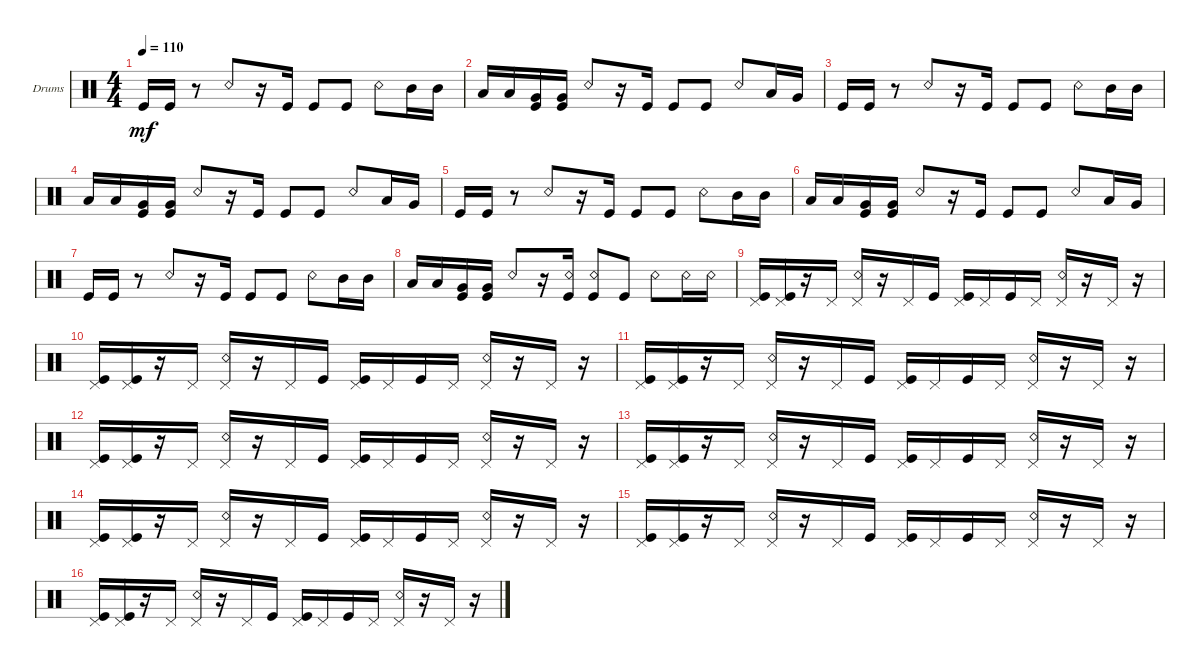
\defaultSystemsLayout 4
\bracketExtendMode groupsimilarinstruments
\firstSystemTrackNameOrientation horizontal
\otherSystemsTrackNameOrientation horizontal
\track ("Drumkit" "Drums") {instrument percussion}
\staff {score}
\articulation defaults
\ts (4 4)
\tempo 110
\clef neutral
\scale
0.474178
\ks c "Kick (hit)".16{dy mf} "Kick (hit)".16
r.8 "Snare (rim shot)".8 r.16 "Kick (hit)".16 "Kick (hit)".8 "Kick (hit)".8 "Snare (rim shot)".8 "Mid Tom (hit)".16 "Mid Tom (hit)".16 |
\scale
0.262911 "Low Tom (hit)".16 "Low Tom (hit)".16 ("Kick (hit)" "Very Low Tom (hit)").16 ("Kick (hit)" "Very Low Tom (hit)").16 "Snare (rim shot)".8 r.16 "Kick (hit)".16 "Kick (hit)".8 "Kick (hit)".8 "Snare (rim shot)".8 "Low Tom (hit)".16 "Very Low Tom (hit)".16 |
\scale
0.262911 "Kick (hit)".16 "Kick (hit)".16 r.8 "Snare (rim shot)".8 r.16 "Kick (hit)".16 "Kick (hit)".8 "Kick (hit)".8 "Snare (rim shot)".8 "Mid Tom (hit)".16 "Mid Tom (hit)".16 |
\scale
0.333333 "Low Tom (hit)".16 "Low Tom (hit)".16 ("Kick (hit)" "Very Low Tom (hit)").16 ("Kick (hit)" "Very Low Tom (hit)").16 "Snare (rim shot)".8 r.16 "Kick (hit)".16 "Kick (hit)".8 "Kick (hit)".8 "Snare (rim shot)".8 "Low Tom (hit)".16 "Very Low Tom (hit)".16 |
\scale
0.333333 "Kick (hit)".16 "Kick (hit)".16 r.8 "Snare (rim shot)".8 r.16 "Kick (hit)".16 "Kick (hit)".8 "Kick (hit)".8 "Snare (rim shot)".8 "Mid Tom (hit)".16 "Mid Tom (hit)".16 |
\scale
0.333333 "Low Tom (hit)".16 "Low Tom (hit)".16 ("Kick (hit)" "Very Low Tom (hit)").16 ("Kick (hit)" "Very Low Tom (hit)").16 "Snare (rim shot)".8 r.16 "Kick (hit)".16 "Kick (hit)".8 "Kick (hit)".8 "Snare (rim shot)".8 "Low Tom (hit)".16 "Very Low Tom (hit)".16 |
"Kick (hit)".16 "Kick (hit)".16 r.8 "Snare (rim shot)".8 r.16 "Kick (hit)".16 "Kick (hit)".8 "Kick (hit)".8 "Snare (rim shot)".8 "Mid Tom (hit)".16 "Mid Tom (hit)".16 |
"Low Tom (hit)".16 "Low Tom (hit)".16 ("Kick (hit)" "Very Low Tom (hit)").16 ("Kick (hit)" "Very Low Tom (hit)").16 "Snare (rim shot)".8 r.16 ("Kick (hit)" "Snare (rim shot)").16 ("Kick (hit)" "Snare (rim shot)").8 "Kick (hit)".8 "Snare (rim shot)".8 "Snare (rim shot)".16 "Snare (rim shot)".16 |
("Pedal Hi-Hat (hit)" "Kick (hit)").16 ("Pedal Hi-Hat (hit)" "Kick (hit)").16 r.16 "Pedal Hi-Hat (hit)".16 ("Pedal Hi-Hat (hit)" "Snare (rim shot)").16 r.16 "Pedal Hi-Hat (hit)".16 "Kick (hit)".16 ("Pedal Hi-Hat (hit)" "Kick (hit)").16 "Pedal Hi-Hat (hit)".16 "Kick (hit)".16 "Pedal Hi-Hat (hit)".16 ("Pedal Hi-Hat (hit)" "Snare (rim shot)").16 r.16 "Pedal Hi-Hat (hit)".16 r.16 |
("Pedal Hi-Hat (hit)" "Kick (hit)").16 ("Pedal Hi-Hat (hit)" "Kick (hit)").16 r.16 "Pedal Hi-Hat (hit)".16 ("Pedal Hi-Hat (hit)" "Snare (rim shot)").16 r.16 "Pedal Hi-Hat (hit)".16 "Kick (hit)".16 ("Pedal Hi-Hat (hit)" "Kick (hit)").16 "Pedal Hi-Hat (hit)".16 "Kick (hit)".16 "Pedal Hi-Hat (hit)".16 ("Pedal Hi-Hat (hit)" "Snare (rim shot)").16 r.16 "Pedal Hi-Hat (hit)".16 r.16 |
("Pedal Hi-Hat (hit)" "Kick (hit)").16 ("Pedal Hi-Hat (hit)" "Kick (hit)").16 r.16 "Pedal Hi-Hat (hit)".16 ("Pedal Hi-Hat (hit)" "Snare (rim shot)").16 r.16 "Pedal Hi-Hat (hit)".16 "Kick (hit)".16 ("Pedal Hi-Hat (hit)" "Kick (hit)").16 "Pedal Hi-Hat (hit)".16 "Kick (hit)".16 "Pedal Hi-Hat (hit)".16 ("Pedal Hi-Hat (hit)" "Snare (rim shot)").16 r.16 "Pedal Hi-Hat (hit)".16 r.16 |
("Pedal Hi-Hat (hit)" "Kick (hit)").16 ("Pedal Hi-Hat (hit)" "Kick (hit)").16 r.16 "Pedal Hi-Hat (hit)".16 ("Pedal Hi-Hat (hit)" "Snare (rim shot)").16 r.16 "Pedal Hi-Hat (hit)".16 "Kick (hit)".16 ("Pedal Hi-Hat (hit)" "Kick (hit)").16 "Pedal Hi-Hat (hit)".16 "Kick (hit)".16 "Pedal Hi-Hat (hit)".16 ("Pedal Hi-Hat (hit)" "Snare (rim shot)").16 r.16 "Pedal Hi-Hat (hit)".16 r.16 |
("Pedal Hi-Hat (hit)" "Kick (hit)").16 ("Pedal Hi-Hat (hit)" "Kick (hit)").16 r.16 "Pedal Hi-Hat (hit)".16 ("Pedal Hi-Hat (hit)" "Snare (rim shot)").16 r.16 "Pedal Hi-Hat (hit)".16 "Kick (hit)".16 ("Pedal Hi-Hat (hit)" "Kick (hit)").16 "Pedal Hi-Hat (hit)".16 "Kick (hit)".16 "Pedal Hi-Hat (hit)".16 ("Pedal Hi-Hat (hit)" "Snare (rim shot)").16 r.16 "Pedal Hi-Hat (hit)".16 r.16 |
("Pedal Hi-Hat (hit)" "Kick (hit)").16 ("Pedal Hi-Hat (hit)" "Kick (hit)").16 r.16 "Pedal Hi-Hat (hit)".16 ("Pedal Hi-Hat (hit)" "Snare (rim shot)").16 r.16 "Pedal Hi-Hat (hit)".16 "Kick (hit)".16 ("Pedal Hi-Hat (hit)" "Kick (hit)").16 "Pedal Hi-Hat (hit)".16 "Kick (hit)".16 "Pedal Hi-Hat (hit)".16 ("Pedal Hi-Hat (hit)" "Snare (rim shot)").16 r.16 "Pedal Hi-Hat (hit)".16 r.16 |
("Pedal Hi-Hat (hit)" "Kick (hit)").16 ("Pedal Hi-Hat (hit)" "Kick (hit)").16 r.16 "Pedal Hi-Hat (hit)".16 ("Pedal Hi-Hat (hit)" "Snare (rim shot)").16 r.16 "Pedal Hi-Hat (hit)".16 "Kick (hit)".16 ("Pedal Hi-Hat (hit)" "Kick (hit)").16 "Pedal Hi-Hat (hit)".16 "Kick (hit)".16 "Pedal Hi-Hat (hit)".16 ("Pedal Hi-Hat (hit)" "Snare (rim shot)").16 r.16 "Pedal Hi-Hat (hit)".16 r.16 |
("Pedal Hi-Hat (hit)" "Kick (hit)").16 ("Pedal Hi-Hat (hit)" "Kick (hit)").16 r.16 "Pedal Hi-Hat (hit)".16 ("Pedal Hi-Hat (hit)" "Snare (rim shot)").16 r.16 "Pedal Hi-Hat (hit)".16 "Kick (hit)".16 ("Pedal Hi-Hat (hit)" "Kick (hit)").16 "Pedal Hi-Hat (hit)".16 "Kick (hit)".16 "Pedal Hi-Hat (hit)".16 ("Pedal Hi-Hat (hit)" "Snare (rim shot)").16 r.16 "Pedal Hi-Hat (hit)".16 r.16
